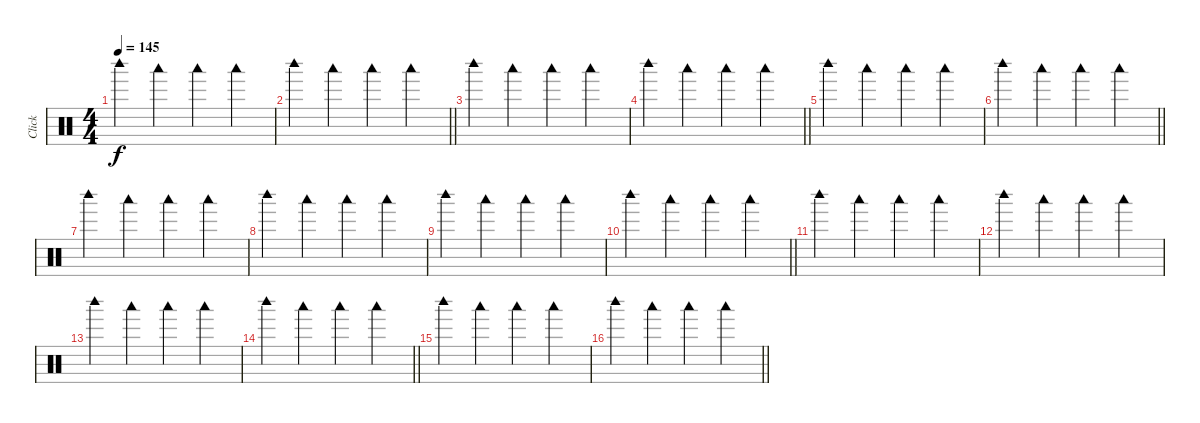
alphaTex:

\track ("Click" "Click") {mute instrument percussion}
\staff {score}
\articulation defaults
\ts (4 4)
\tempo 145
\clef neutral
\ks c "Woodblock high (hit)".4{dy f} "Woodblock low (hit)".4 "Woodblock low (hit)".4 "Woodblock low (hit)".4
|
\barLineRight lightlight "Woodblock high (hit)".4 "Woodblock low (hit)".4 "Woodblock low (hit)".4 "Woodblock low (hit)".4
|
"Woodblock high (hit)".4 "Woodblock low (hit)".4 "Woodblock low (hit)".4 "Woodblock low (hit)".4 |
\barLineRight lightlight "Woodblock high (hit)".4 "Woodblock low (hit)".4 "Woodblock low (hit)".4 "Woodblock low (hit)".4
|
"Woodblock high (hit)".4 "Woodblock low (hit)".4 "Woodblock low (hit)".4 "Woodblock low (hit)".4 |
\barLineRight lightlight "Woodblock high (hit)".4 "Woodblock low (hit)".4 "Woodblock low (hit)".4 "Woodblock low (hit)".4
|
"Woodblock high (hit)".4 "Woodblock low (hit)".4 "Woodblock low (hit)".4 "Woodblock low (hit)".4 |
"Woodblock high (hit)".4 "Woodblock low (hit)".4 "Woodblock low (hit)".4 "Woodblock low (hit)".4 |
"Woodblock high (hit)".4 "Woodblock low (hit)".4 "Woodblock low (hit)".4 "Woodblock low (hit)".4 |
\barLineRight lightlight "Woodblock high (hit)".4 "Woodblock low (hit)".4 "Woodblock low (hit)".4 "Woodblock low (hit)".4
|
"Woodblock high (hit)".4 "Woodblock low (hit)".4 "Woodblock low (hit)".4 "Woodblock low (hit)".4 |
"Woodblock high (hit)".4 "Woodblock low (hit)".4 "Woodblock low (hit)".4 "Woodblock low (hit)".4 |
"Woodblock high (hit)".4 "Woodblock low (hit)".4 "Woodblock low (hit)".4 "Woodblock low (hit)".4 |
\barLineRight lightlight "Woodblock high (hit)".4 "Woodblock low (hit)".4 "Woodblock low (hit)".4 "Woodblock low (hit)".4
|
"Woodblock high (hit)".4 "Woodblock low (hit)".4 "Woodblock low (hit)".4 "Woodblock low (hit)".4 |
\barLineRight lightlight "Woodblock high (hit)".4 "Woodblock low (hit)".4 "Woodblock low (hit)".4 "Woodblock low (hit)".4
